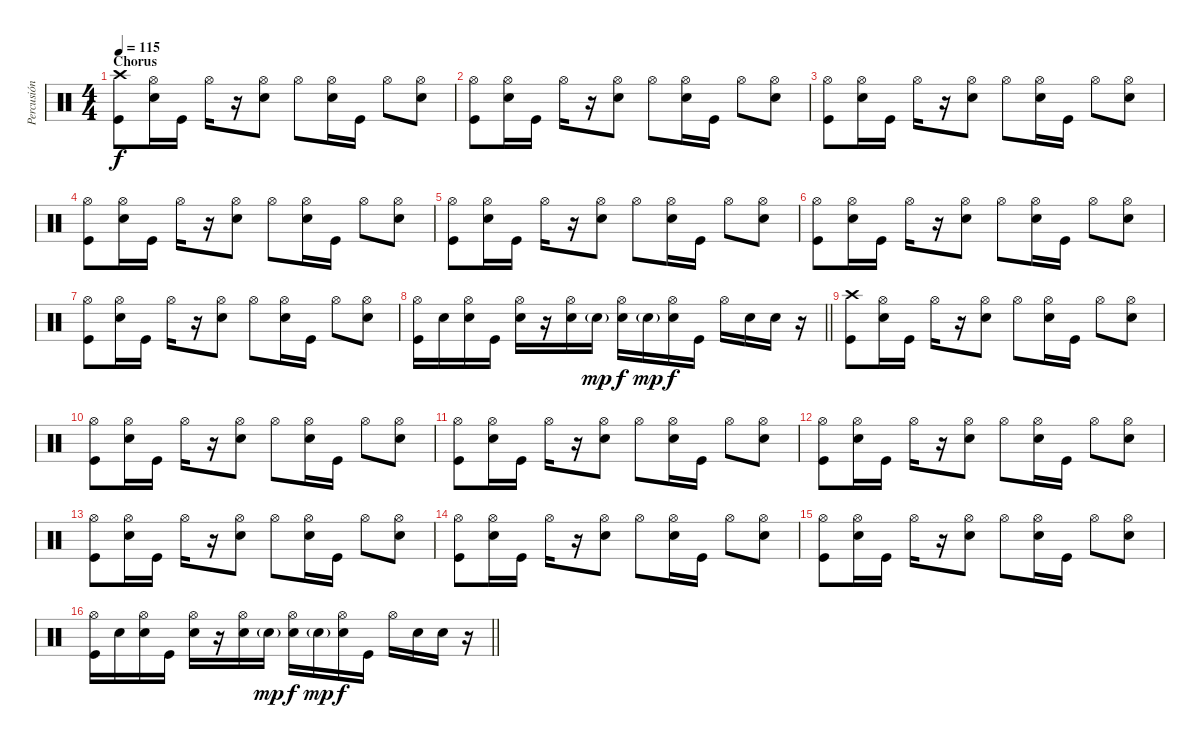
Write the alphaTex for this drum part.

\track ("Percusión" "Percusión") {instrument percussion}
\staff {score}
\articulation defaults
\ts (4 4)
\section ("" "Chorus")
\tempo 115
\clef neutral
\ks c
("Kick (hit)" "Crash high (hit)").8{dy f} ("Electric Snare (hit)" "Hi-Hat (open)").16 "Kick (hit)".16 "Hi-Hat (open)".16 r.16 ("Electric Snare (hit)" "Hi-Hat (open)").8 "Hi-Hat (open)".8 ("Electric Snare (hit)" "Hi-Hat (open)").16 "Kick (hit)".16 "Hi-Hat (open)".8 ("Electric Snare (hit)" "Hi-Hat (open)").8 |
("Kick (hit)" "Hi-Hat (open)").8 ("Electric Snare (hit)" "Hi-Hat (open)").16 "Kick (hit)".16 "Hi-Hat (open)".16 r.16 ("Electric Snare (hit)" "Hi-Hat (open)").8 "Hi-Hat (open)".8 ("Electric Snare (hit)" "Hi-Hat (open)").16 "Kick (hit)".16 "Hi-Hat (open)".8 ("Electric Snare (hit)" "Hi-Hat (open)").8 |
("Kick (hit)" "Hi-Hat (open)").8 ("Electric Snare (hit)" "Hi-Hat (open)").16 "Kick (hit)".16 "Hi-Hat (open)".16 r.16 ("Electric Snare (hit)" "Hi-Hat (open)").8 "Hi-Hat (open)".8 ("Electric Snare (hit)" "Hi-Hat (open)").16 "Kick (hit)".16 "Hi-Hat (open)".8 ("Electric Snare (hit)" "Hi-Hat (open)").8 |
("Kick (hit)" "Hi-Hat (open)").8 ("Electric Snare (hit)" "Hi-Hat (open)").16 "Kick (hit)".16 "Hi-Hat (open)".16 r.16 ("Electric Snare (hit)" "Hi-Hat (open)").8 "Hi-Hat (open)".8 ("Electric Snare (hit)" "Hi-Hat (open)").16 "Kick (hit)".16 "Hi-Hat (open)".8 ("Electric Snare (hit)" "Hi-Hat (open)").8 |
("Kick (hit)" "Hi-Hat (open)").8 ("Electric Snare (hit)" "Hi-Hat (open)").16 "Kick (hit)".16 "Hi-Hat (open)".16 r.16 ("Electric Snare (hit)" "Hi-Hat (open)").8 "Hi-Hat (open)".8 ("Electric Snare (hit)" "Hi-Hat (open)").16 "Kick (hit)".16 "Hi-Hat (open)".8 ("Electric Snare (hit)" "Hi-Hat (open)").8 |
("Kick (hit)" "Hi-Hat (open)").8 ("Electric Snare (hit)" "Hi-Hat (open)").16 "Kick (hit)".16 "Hi-Hat (open)".16 r.16 ("Electric Snare (hit)" "Hi-Hat (open)").8 "Hi-Hat (open)".8 ("Electric Snare (hit)" "Hi-Hat (open)").16 "Kick (hit)".16 "Hi-Hat (open)".8 ("Electric Snare (hit)" "Hi-Hat (open)").8 |
("Kick (hit)" "Hi-Hat (open)").8 ("Electric Snare (hit)" "Hi-Hat (open)").16 "Kick (hit)".16 "Hi-Hat (open)".16 r.16 ("Electric Snare (hit)" "Hi-Hat (open)").8 "Hi-Hat (open)".8 ("Electric Snare (hit)" "Hi-Hat (open)").16 "Kick (hit)".16 "Hi-Hat (open)".8 ("Electric Snare (hit)" "Hi-Hat (open)").8 |
\barLineRight lightlight
("Kick (hit)" "Hi-Hat (open)").16 "Electric Snare (hit)".16 ("Electric Snare (hit)" "Hi-Hat (open)").16 "Kick (hit)".16 ("Electric Snare (hit)" "Hi-Hat (open)").16 r.16 ("Electric Snare (hit)" "Hi-Hat (open)").16 "Electric Snare (hit)"{g}.16{dy mp} ("Electric Snare (hit)" "Hi-Hat (open)").16{dy f} "Electric Snare (hit)"{g}.16{dy mp} ("Electric Snare (hit)" "Hi-Hat (open)").16{dy f} "Kick (hit)".16 "Hi-Hat (open)".16 "Electric Snare (hit)".16 "Electric Snare (hit)".16 r.16 |
("Kick (hit)" "Crash high (hit)").8 ("Electric Snare (hit)" "Hi-Hat (open)").16 "Kick (hit)".16 "Hi-Hat (open)".16 r.16 ("Electric Snare (hit)" "Hi-Hat (open)").8 "Hi-Hat (open)".8 ("Electric Snare (hit)" "Hi-Hat (open)").16 "Kick (hit)".16 "Hi-Hat (open)".8 ("Electric Snare (hit)" "Hi-Hat (open)").8 |
("Kick (hit)" "Hi-Hat (open)").8 ("Electric Snare (hit)" "Hi-Hat (open)").16 "Kick (hit)".16 "Hi-Hat (open)".16 r.16 ("Electric Snare (hit)" "Hi-Hat (open)").8 "Hi-Hat (open)".8 ("Electric Snare (hit)" "Hi-Hat (open)").16 "Kick (hit)".16 "Hi-Hat (open)".8 ("Electric Snare (hit)" "Hi-Hat (open)").8 |
("Kick (hit)" "Hi-Hat (open)").8 ("Electric Snare (hit)" "Hi-Hat (open)").16 "Kick (hit)".16 "Hi-Hat (open)".16 r.16 ("Electric Snare (hit)" "Hi-Hat (open)").8 "Hi-Hat (open)".8 ("Electric Snare (hit)" "Hi-Hat (open)").16 "Kick (hit)".16 "Hi-Hat (open)".8 ("Electric Snare (hit)" "Hi-Hat (open)").8 |
("Kick (hit)" "Hi-Hat (open)").8 ("Electric Snare (hit)" "Hi-Hat (open)").16 "Kick (hit)".16 "Hi-Hat (open)".16 r.16 ("Electric Snare (hit)" "Hi-Hat (open)").8 "Hi-Hat (open)".8 ("Electric Snare (hit)" "Hi-Hat (open)").16 "Kick (hit)".16 "Hi-Hat (open)".8 ("Electric Snare (hit)" "Hi-Hat (open)").8 |
("Kick (hit)" "Hi-Hat (open)").8 ("Electric Snare (hit)" "Hi-Hat (open)").16 "Kick (hit)".16 "Hi-Hat (open)".16 r.16 ("Electric Snare (hit)" "Hi-Hat (open)").8 "Hi-Hat (open)".8 ("Electric Snare (hit)" "Hi-Hat (open)").16 "Kick (hit)".16 "Hi-Hat (open)".8 ("Electric Snare (hit)" "Hi-Hat (open)").8 |
("Kick (hit)" "Hi-Hat (open)").8 ("Electric Snare (hit)" "Hi-Hat (open)").16 "Kick (hit)".16 "Hi-Hat (open)".16 r.16 ("Electric Snare (hit)" "Hi-Hat (open)").8 "Hi-Hat (open)".8 ("Electric Snare (hit)" "Hi-Hat (open)").16 "Kick (hit)".16 "Hi-Hat (open)".8 ("Electric Snare (hit)" "Hi-Hat (open)").8 |
("Kick (hit)" "Hi-Hat (open)").8 ("Electric Snare (hit)" "Hi-Hat (open)").16 "Kick (hit)".16 "Hi-Hat (open)".16 r.16 ("Electric Snare (hit)" "Hi-Hat (open)").8 "Hi-Hat (open)".8 ("Electric Snare (hit)" "Hi-Hat (open)").16 "Kick (hit)".16 "Hi-Hat (open)".8 ("Electric Snare (hit)" "Hi-Hat (open)").8 |
\barLineRight lightlight
("Kick (hit)" "Hi-Hat (open)").16 "Electric Snare (hit)".16 ("Electric Snare (hit)" "Hi-Hat (open)").16 "Kick (hit)".16 ("Electric Snare (hit)" "Hi-Hat (open)").16 r.16 ("Electric Snare (hit)" "Hi-Hat (open)").16 "Electric Snare (hit)"{g}.16{dy mp} ("Electric Snare (hit)" "Hi-Hat (open)").16{dy f} "Electric Snare (hit)"{g}.16{dy mp} ("Electric Snare (hit)" "Hi-Hat (open)").16{dy f} "Kick (hit)".16 "Hi-Hat (open)".16 "Electric Snare (hit)".16 "Electric Snare (hit)".16 r.16
